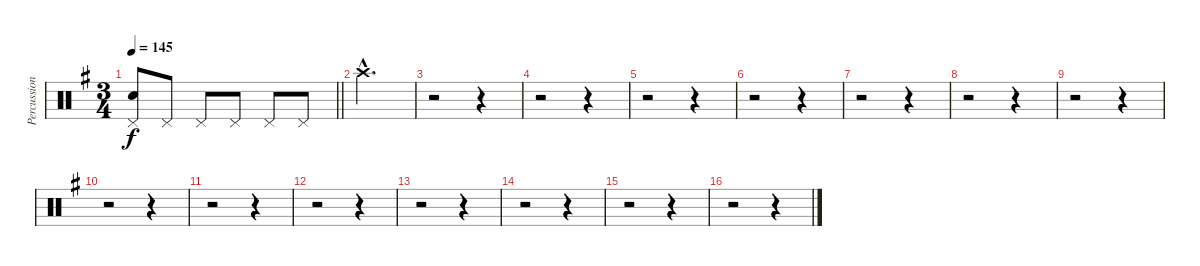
\track ("Percussion" "Percussion") {instrument percussion}
\staff {score}
\articulation defaults
\ts (3 4)
\tempo 145
\clef neutral
\barLineRight lightlight
\ks eminor
("Pedal Hi-Hat (hit)" "Electric Snare (hit)").8{dy f} "Pedal Hi-Hat (hit)".8 "Pedal Hi-Hat (hit)".8 "Pedal Hi-Hat (hit)".8 "Pedal Hi-Hat (hit)".8 "Pedal Hi-Hat (hit)".8 |
"Crash high (hit)"{hac}.2{d} |
r.2 r.4 |
r.2 r.4 |
r.2 r.4 |
r.2 r.4 |
r.2 r.4 |
r.2 r.4 |
r.2 r.4 |
r.2 r.4 |
r.2 r.4 |
r.2 r.4 |
r.2 r.4 |
r.2 r.4 |
r.2 r.4 |
r.2 r.4
